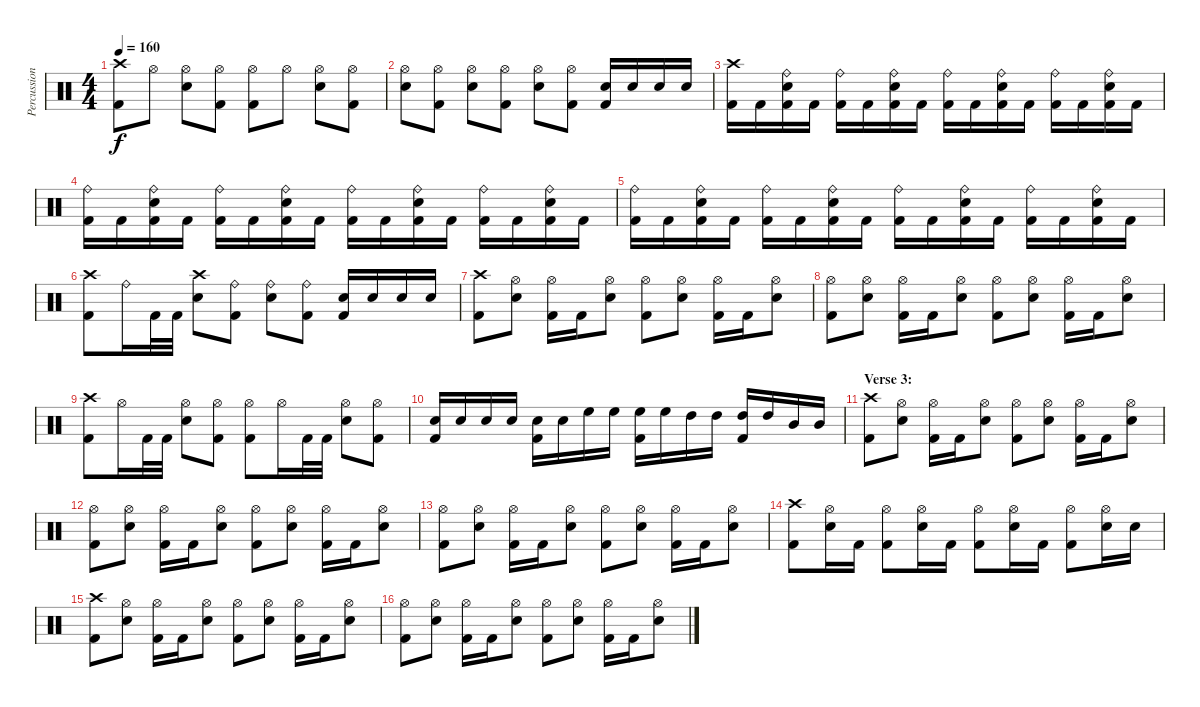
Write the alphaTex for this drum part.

\track ("Percussion" "Percussion") {instrument percussion}
\staff {score}
\articulation defaults
\ts (4 4)
\tempo 160
\clef neutral
\ks c
("Crash high (hit)" "Kick (hit) 2").8{dy f} "Hi-Hat (open)".8 ("Hi-Hat (open)" "Electric Snare (hit)").8 ("Hi-Hat (open)" "Kick (hit) 2").8 ("Hi-Hat (open)" "Kick (hit) 2").8 "Hi-Hat (open)".8 ("Hi-Hat (open)" "Electric Snare (hit)").8 ("Hi-Hat (open)" "Kick (hit) 2").8 |
("Hi-Hat (open)" "Electric Snare (hit)").8 ("Hi-Hat (open)" "Kick (hit) 2").8 ("Hi-Hat (open)" "Electric Snare (hit)").8 ("Hi-Hat (open)" "Kick (hit) 2").8 ("Hi-Hat (open)" "Electric Snare (hit)").8 ("Hi-Hat (open)" "Kick (hit) 2").8 ("Electric Snare (hit)" "Kick (hit) 2").16 "Electric Snare (hit)".16 "Electric Snare (hit)".16 "Electric Snare (hit)".16 |
("Crash high (hit)" "Kick (hit) 2").16 "Kick (hit) 2".16 ("Ride (bell)" "Electric Snare (hit)" "Kick (hit) 2").16 "Kick (hit) 2".16 ("Ride (bell)" "Kick (hit) 2").16 "Kick (hit) 2".16 ("Ride (bell)" "Electric Snare (hit)" "Kick (hit) 2").16 "Kick (hit) 2".16 ("Ride (bell)" "Kick (hit) 2").16 "Kick (hit) 2".16 ("Ride (bell)" "Electric Snare (hit)" "Kick (hit) 2").16 "Kick (hit) 2".16 ("Ride (bell)" "Kick (hit) 2").16 "Kick (hit) 2".16 ("Ride (bell)" "Electric Snare (hit)" "Kick (hit) 2").16 "Kick (hit) 2".16 |
("Ride (bell)" "Kick (hit) 2").16 "Kick (hit) 2".16 ("Ride (bell)" "Electric Snare (hit)" "Kick (hit) 2").16 "Kick (hit) 2".16 ("Ride (bell)" "Kick (hit) 2").16 "Kick (hit) 2".16 ("Ride (bell)" "Electric Snare (hit)" "Kick (hit) 2").16 "Kick (hit) 2".16 ("Ride (bell)" "Kick (hit) 2").16 "Kick (hit) 2".16 ("Ride (bell)" "Electric Snare (hit)" "Kick (hit) 2").16 "Kick (hit) 2".16 ("Ride (bell)" "Kick (hit) 2").16 "Kick (hit) 2".16 ("Ride (bell)" "Electric Snare (hit)" "Kick (hit) 2").16 "Kick (hit) 2".16 |
("Ride (bell)" "Kick (hit) 2").16 "Kick (hit) 2".16 ("Ride (bell)" "Electric Snare (hit)" "Kick (hit) 2").16 "Kick (hit) 2".16 ("Ride (bell)" "Kick (hit) 2").16 "Kick (hit) 2".16 ("Ride (bell)" "Electric Snare (hit)" "Kick (hit) 2").16 "Kick (hit) 2".16 ("Ride (bell)" "Kick (hit) 2").16 "Kick (hit) 2".16 ("Ride (bell)" "Electric Snare (hit)" "Kick (hit) 2").16 "Kick (hit) 2".16 ("Ride (bell)" "Kick (hit) 2").16 "Kick (hit) 2".16 ("Ride (bell)" "Electric Snare (hit)" "Kick (hit) 2").16 "Kick (hit) 2".16 |
("Crash high (hit)" "Kick (hit) 2").8 "Ride (bell)".16 "Kick (hit) 2".32 "Kick (hit) 2".32 ("Crash high (hit)" "Electric Snare (hit)").8 ("Ride (bell)" "Kick (hit) 2").8 ("Ride (bell)" "Electric Snare (hit)").8 ("Ride (bell)" "Kick (hit) 2").8 ("Electric Snare (hit)" "Kick (hit) 2").16 "Electric Snare (hit)".16 "Electric Snare (hit)".16 "Electric Snare (hit)".16 |
("Crash high (hit)" "Kick (hit) 2").8 ("Hi-Hat (open)" "Electric Snare (hit)").8 ("Hi-Hat (open)" "Kick (hit) 2").16 "Kick (hit) 2".16 ("Hi-Hat (open)" "Electric Snare (hit)").8 ("Hi-Hat (open)" "Kick (hit) 2").8 ("Hi-Hat (open)" "Electric Snare (hit)").8 ("Hi-Hat (open)" "Kick (hit) 2").16 "Kick (hit) 2".16 ("Hi-Hat (open)" "Electric Snare (hit)").8 |
("Hi-Hat (open)" "Kick (hit) 2").8 ("Hi-Hat (open)" "Electric Snare (hit)").8 ("Hi-Hat (open)" "Kick (hit) 2").16 "Kick (hit) 2".16 ("Hi-Hat (open)" "Electric Snare (hit)").8 ("Hi-Hat (open)" "Kick (hit) 2").8 ("Hi-Hat (open)" "Electric Snare (hit)").8 ("Hi-Hat (open)" "Kick (hit) 2").16 "Kick (hit) 2".16 ("Hi-Hat (open)" "Electric Snare (hit)").8 |
("Crash high (hit)" "Kick (hit) 2").8 "Hi-Hat (open)".16 "Kick (hit) 2".32 "Kick (hit) 2".32 ("Hi-Hat (open)" "Electric Snare (hit)").8 ("Hi-Hat (open)" "Kick (hit) 2").8 ("Hi-Hat (open)" "Kick (hit) 2").8 "Hi-Hat (open)".16 "Kick (hit) 2".32 "Kick (hit) 2".32 ("Hi-Hat (open)" "Electric Snare (hit)").8 ("Hi-Hat (open)" "Kick (hit) 2").8 |
("Electric Snare (hit)" "Kick (hit) 2").16 "Electric Snare (hit)".16 "Electric Snare (hit)".16 "Electric Snare (hit)".16 ("Electric Snare (hit)" "Kick (hit) 2").16 "Electric Snare (hit)".16 "High Floor Tom (hit)".16 "High Floor Tom (hit)".16 ("High Floor Tom (hit)" "Kick (hit) 2").16 "High Floor Tom (hit)".16 "High Tom (hit)".16 "High Tom (hit)".16 ("High Tom (hit)" "Kick (hit) 2").16 "High Tom (hit)".16 "Mid Tom (hit)".16 "Mid Tom (hit)".16 |
\section ("" "Verse 3:")
("Crash high (hit)" "Kick (hit) 2").8 ("Hi-Hat (open)" "Electric Snare (hit)").8 ("Hi-Hat (open)" "Kick (hit) 2").16 "Kick (hit) 2".16 ("Hi-Hat (open)" "Electric Snare (hit)").8 ("Hi-Hat (open)" "Kick (hit) 2").8 ("Hi-Hat (open)" "Electric Snare (hit)").8 ("Hi-Hat (open)" "Kick (hit) 2").16 "Kick (hit) 2".16 ("Hi-Hat (open)" "Electric Snare (hit)").8 |
("Hi-Hat (open)" "Kick (hit) 2").8 ("Hi-Hat (open)" "Electric Snare (hit)").8 ("Hi-Hat (open)" "Kick (hit) 2").16 "Kick (hit) 2".16 ("Hi-Hat (open)" "Electric Snare (hit)").8 ("Hi-Hat (open)" "Kick (hit) 2").8 ("Hi-Hat (open)" "Electric Snare (hit)").8 ("Hi-Hat (open)" "Kick (hit) 2").16 "Kick (hit) 2".16 ("Hi-Hat (open)" "Electric Snare (hit)").8 |
("Hi-Hat (open)" "Kick (hit) 2").8 ("Hi-Hat (open)" "Electric Snare (hit)").8 ("Hi-Hat (open)" "Kick (hit) 2").16 "Kick (hit) 2".16 ("Hi-Hat (open)" "Electric Snare (hit)").8 ("Hi-Hat (open)" "Kick (hit) 2").8 ("Hi-Hat (open)" "Electric Snare (hit)").8 ("Hi-Hat (open)" "Kick (hit) 2").16 "Kick (hit) 2".16 ("Hi-Hat (open)" "Electric Snare (hit)").8 |
("Crash high (hit)" "Kick (hit) 2").8 ("Hi-Hat (open)" "Electric Snare (hit)").16 "Kick (hit) 2".16 ("Hi-Hat (open)" "Kick (hit) 2").8 ("Hi-Hat (open)" "Electric Snare (hit)").16 "Kick (hit) 2".16 ("Hi-Hat (open)" "Kick (hit) 2").8 ("Hi-Hat (open)" "Electric Snare (hit)").16 "Kick (hit) 2".16 ("Hi-Hat (open)" "Kick (hit) 2").8 ("Hi-Hat (open)" "Electric Snare (hit)").16 "Electric Snare (hit)".16 |
("Crash high (hit)" "Kick (hit) 2").8 ("Hi-Hat (open)" "Electric Snare (hit)").8 ("Hi-Hat (open)" "Kick (hit) 2").16 "Kick (hit) 2".16 ("Hi-Hat (open)" "Electric Snare (hit)").8 ("Hi-Hat (open)" "Kick (hit) 2").8 ("Hi-Hat (open)" "Electric Snare (hit)").8 ("Hi-Hat (open)" "Kick (hit) 2").16 "Kick (hit) 2".16 ("Hi-Hat (open)" "Electric Snare (hit)").8 |
("Hi-Hat (open)" "Kick (hit) 2").8 ("Hi-Hat (open)" "Electric Snare (hit)").8 ("Hi-Hat (open)" "Kick (hit) 2").16 "Kick (hit) 2".16 ("Hi-Hat (open)" "Electric Snare (hit)").8 ("Hi-Hat (open)" "Kick (hit) 2").8 ("Hi-Hat (open)" "Electric Snare (hit)").8 ("Hi-Hat (open)" "Kick (hit) 2").16 "Kick (hit) 2".16 ("Hi-Hat (open)" "Electric Snare (hit)").8
